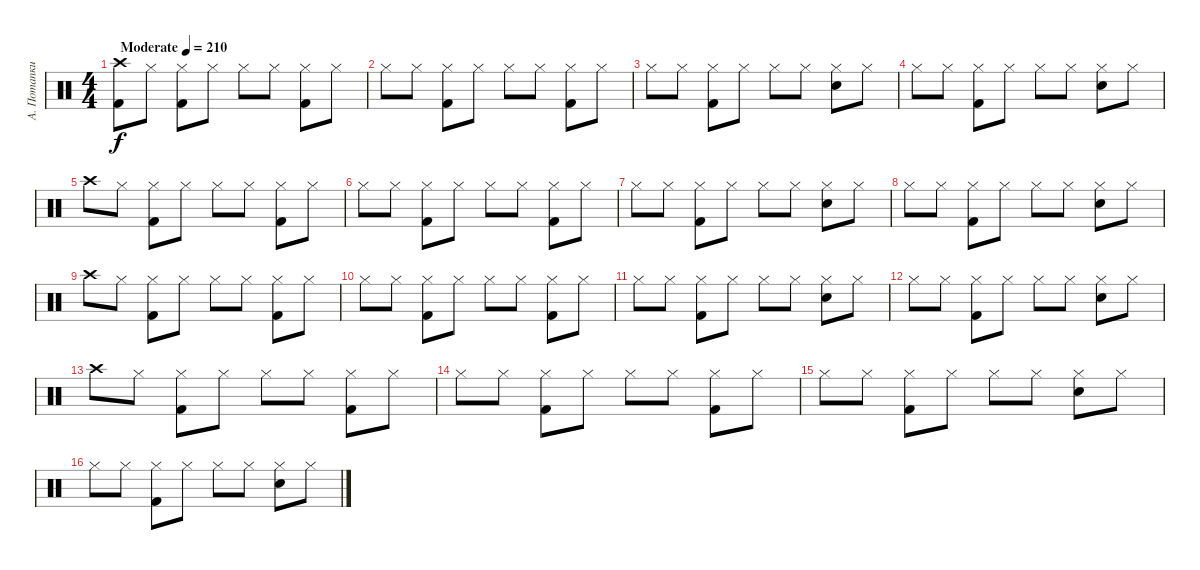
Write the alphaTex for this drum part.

\track ("А. Потапкин" "А. Потапки") {instrument percussion}
\staff {score}
\articulation defaults
\ts (4 4)
\tempo (210 "Moderate")
\clef neutral
\ks c
("Crash high (hit)" "Kick (hit) 2").8{dy f} "Hi-Hat (closed)".8 ("Hi-Hat (closed)" "Kick (hit) 2").8 "Hi-Hat (closed)".8 "Hi-Hat (closed)".8 "Hi-Hat (closed)".8 ("Hi-Hat (closed)" "Kick (hit) 2").8 "Hi-Hat (closed)".8 |
"Hi-Hat (closed)".8 "Hi-Hat (closed)".8 ("Hi-Hat (closed)" "Kick (hit) 2").8 "Hi-Hat (closed)".8 "Hi-Hat (closed)".8 "Hi-Hat (closed)".8 ("Hi-Hat (closed)" "Kick (hit) 2").8 "Hi-Hat (closed)".8 |
"Hi-Hat (closed)".8 "Hi-Hat (closed)".8 ("Hi-Hat (closed)" "Kick (hit) 2").8 "Hi-Hat (closed)".8 "Hi-Hat (closed)".8 "Hi-Hat (closed)".8 ("Hi-Hat (closed)" "Electric Snare (hit)").8 "Hi-Hat (closed)".8 |
"Hi-Hat (closed)".8 "Hi-Hat (closed)".8 ("Hi-Hat (closed)" "Kick (hit) 2").8 "Hi-Hat (closed)".8 "Hi-Hat (closed)".8 "Hi-Hat (closed)".8 ("Hi-Hat (closed)" "Electric Snare (hit)").8 "Hi-Hat (closed)".8 |
"Crash high (hit)".8 "Hi-Hat (closed)".8 ("Hi-Hat (closed)" "Kick (hit) 2").8 "Hi-Hat (closed)".8 "Hi-Hat (closed)".8 "Hi-Hat (closed)".8 ("Hi-Hat (closed)" "Kick (hit) 2").8 "Hi-Hat (closed)".8 |
"Hi-Hat (closed)".8 "Hi-Hat (closed)".8 ("Hi-Hat (closed)" "Kick (hit) 2").8 "Hi-Hat (closed)".8 "Hi-Hat (closed)".8 "Hi-Hat (closed)".8 ("Hi-Hat (closed)" "Kick (hit) 2").8 "Hi-Hat (closed)".8 |
"Hi-Hat (closed)".8 "Hi-Hat (closed)".8 ("Hi-Hat (closed)" "Kick (hit) 2").8 "Hi-Hat (closed)".8 "Hi-Hat (closed)".8 "Hi-Hat (closed)".8 ("Hi-Hat (closed)" "Electric Snare (hit)").8 "Hi-Hat (closed)".8 |
"Hi-Hat (closed)".8 "Hi-Hat (closed)".8 ("Hi-Hat (closed)" "Kick (hit) 2").8 "Hi-Hat (closed)".8 "Hi-Hat (closed)".8 "Hi-Hat (closed)".8 ("Hi-Hat (closed)" "Electric Snare (hit)").8 "Hi-Hat (closed)".8 |
"Crash high (hit)".8 "Hi-Hat (closed)".8 ("Hi-Hat (closed)" "Kick (hit) 2").8 "Hi-Hat (closed)".8 "Hi-Hat (closed)".8 "Hi-Hat (closed)".8 ("Hi-Hat (closed)" "Kick (hit) 2").8 "Hi-Hat (closed)".8 |
"Hi-Hat (closed)".8 "Hi-Hat (closed)".8 ("Hi-Hat (closed)" "Kick (hit) 2").8 "Hi-Hat (closed)".8 "Hi-Hat (closed)".8 "Hi-Hat (closed)".8 ("Hi-Hat (closed)" "Kick (hit) 2").8 "Hi-Hat (closed)".8 |
"Hi-Hat (closed)".8 "Hi-Hat (closed)".8 ("Hi-Hat (closed)" "Kick (hit) 2").8 "Hi-Hat (closed)".8 "Hi-Hat (closed)".8 "Hi-Hat (closed)".8 ("Hi-Hat (closed)" "Electric Snare (hit)").8 "Hi-Hat (closed)".8 |
"Hi-Hat (closed)".8 "Hi-Hat (closed)".8 ("Hi-Hat (closed)" "Kick (hit) 2").8 "Hi-Hat (closed)".8 "Hi-Hat (closed)".8 "Hi-Hat (closed)".8 ("Hi-Hat (closed)" "Electric Snare (hit)").8 "Hi-Hat (closed)".8 |
"Crash high (hit)".8 "Hi-Hat (closed)".8 ("Hi-Hat (closed)" "Kick (hit) 2").8 "Hi-Hat (closed)".8 "Hi-Hat (closed)".8 "Hi-Hat (closed)".8 ("Hi-Hat (closed)" "Kick (hit) 2").8 "Hi-Hat (closed)".8 |
"Hi-Hat (closed)".8 "Hi-Hat (closed)".8 ("Hi-Hat (closed)" "Kick (hit) 2").8 "Hi-Hat (closed)".8 "Hi-Hat (closed)".8 "Hi-Hat (closed)".8 ("Hi-Hat (closed)" "Kick (hit) 2").8 "Hi-Hat (closed)".8 |
"Hi-Hat (closed)".8 "Hi-Hat (closed)".8 ("Hi-Hat (closed)" "Kick (hit) 2").8 "Hi-Hat (closed)".8 "Hi-Hat (closed)".8 "Hi-Hat (closed)".8 ("Hi-Hat (closed)" "Electric Snare (hit)").8 "Hi-Hat (closed)".8 |
"Hi-Hat (closed)".8 "Hi-Hat (closed)".8 ("Hi-Hat (closed)" "Kick (hit) 2").8 "Hi-Hat (closed)".8 "Hi-Hat (closed)".8 "Hi-Hat (closed)".8 ("Hi-Hat (closed)" "Electric Snare (hit)").8 "Hi-Hat (closed)".8
